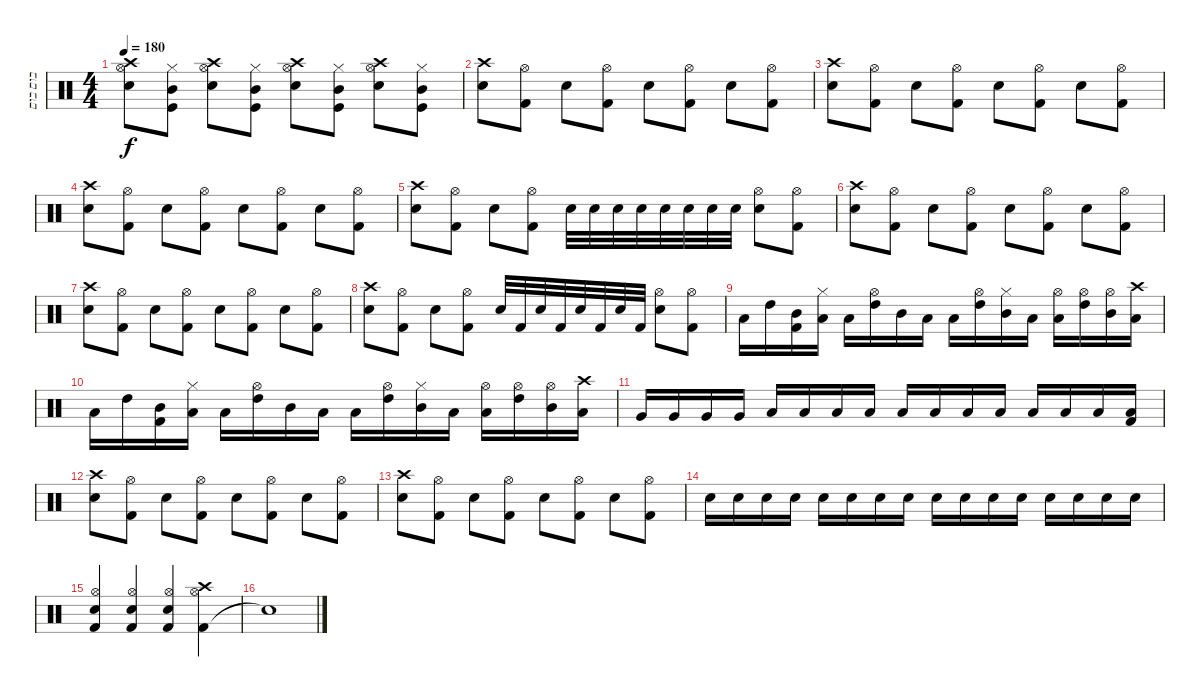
\track ("בום בום" "בום בום") {instrument percussion}
\staff {score}
\articulation defaults
\ts (4 4)
\tempo 180
\clef neutral
\ks c
("Snare (hit) 2" "Hi-Hat (open)" "Crash high (hit)").8{dy f} ("Kick (hit)" "Hi-Hat (closed)" "Mid Tom (hit)").8 ("Snare (hit) 2" "Hi-Hat (open)" "Crash high (hit)").8 ("Kick (hit)" "Hi-Hat (closed)" "Mid Tom (hit)").8 ("Snare (hit) 2" "Hi-Hat (open)" "Crash high (hit)").8 ("Kick (hit)" "Hi-Hat (closed)" "Mid Tom (hit)").8 ("Snare (hit) 2" "Hi-Hat (open)" "Crash high (hit)").8 ("Kick (hit)" "Hi-Hat (closed)" "Mid Tom (hit)").8 |
("Snare (hit) 2" "Crash high (hit)").8 ("Kick (hit) 2" "Hi-Hat (open)").8 "Snare (hit) 2".8 ("Kick (hit) 2" "Hi-Hat (open)").8 "Snare (hit) 2".8 ("Kick (hit) 2" "Hi-Hat (open)").8 "Snare (hit) 2".8 ("Kick (hit) 2" "Hi-Hat (open)").8 |
("Snare (hit) 2" "Crash high (hit)").8 ("Kick (hit) 2" "Hi-Hat (open)").8 "Snare (hit) 2".8 ("Kick (hit) 2" "Hi-Hat (open)").8 "Snare (hit) 2".8 ("Kick (hit) 2" "Hi-Hat (open)").8 "Snare (hit) 2".8 ("Kick (hit) 2" "Hi-Hat (open)").8 |
("Snare (hit) 2" "Crash high (hit)").8 ("Kick (hit) 2" "Hi-Hat (open)").8 "Snare (hit) 2".8 ("Kick (hit) 2" "Hi-Hat (open)").8 "Snare (hit) 2".8 ("Kick (hit) 2" "Hi-Hat (open)").8 "Snare (hit) 2".8 ("Kick (hit) 2" "Hi-Hat (open)").8 |
("Snare (hit) 2" "Crash high (hit)").8 ("Kick (hit) 2" "Hi-Hat (open)").8 "Snare (hit) 2".8 ("Kick (hit) 2" "Hi-Hat (open)").8 "Snare (hit) 2".32 "Snare (hit) 2".32 "Snare (hit) 2".32 "Snare (hit) 2".32 "Snare (hit) 2".32 "Snare (hit) 2".32 "Snare (hit) 2".32 "Snare (hit) 2".32 ("Snare (hit) 2" "Hi-Hat (open)").8 ("Kick (hit) 2" "Hi-Hat (open)").8 |
("Snare (hit) 2" "Crash high (hit)").8 ("Kick (hit) 2" "Hi-Hat (open)").8 "Snare (hit) 2".8 ("Kick (hit) 2" "Hi-Hat (open)").8 "Snare (hit) 2".8 ("Kick (hit) 2" "Hi-Hat (open)").8 "Snare (hit) 2".8 ("Kick (hit) 2" "Hi-Hat (open)").8 |
("Snare (hit) 2" "Crash high (hit)").8 ("Kick (hit) 2" "Hi-Hat (open)").8 "Snare (hit) 2".8 ("Kick (hit) 2" "Hi-Hat (open)").8 "Snare (hit) 2".8 ("Kick (hit) 2" "Hi-Hat (open)").8 "Snare (hit) 2".8 ("Kick (hit) 2" "Hi-Hat (open)").8 |
("Snare (hit) 2" "Crash high (hit)").8 ("Kick (hit) 2" "Hi-Hat (open)").8 "Snare (hit) 2".8 ("Kick (hit) 2" "Hi-Hat (open)").8 "Snare (hit) 2".32 "Kick (hit) 2".32 "Snare (hit) 2".32 "Kick (hit) 2".32 "Snare (hit) 2".32 "Kick (hit) 2".32 "Snare (hit) 2".32 "Kick (hit) 2".32 ("Snare (hit) 2" "Hi-Hat (open)").8 ("Kick (hit) 2" "Hi-Hat (open)").8 |
"Low Floor Tom (hit)".16 "High Tom (hit)".16 ("Mid Tom (hit)" "Kick (hit) 2").16 ("Low Tom (hit)" "Hi-Hat (closed)").16 "Low Floor Tom (hit)".16 ("High Tom (hit)" "Hi-Hat (open)").16 "Mid Tom (hit)".16 "Low Tom (hit)".16 "Low Floor Tom (hit)".16 ("High Tom (hit)" "Hi-Hat (open)").16 ("Mid Tom (hit)" "Hi-Hat (closed)").16 "Low Tom (hit)".16 ("Low Floor Tom (hit)" "Hi-Hat (open)").16 ("High Tom (hit)" "Hi-Hat (open)").16 ("Mid Tom (hit)" "Hi-Hat (open)").16 ("Low Tom (hit)" "Crash high (hit)").16 |
"Low Floor Tom (hit)".16 "High Tom (hit)".16 ("Mid Tom (hit)" "Kick (hit) 2").16 ("Low Tom (hit)" "Hi-Hat (closed)").16 "Low Floor Tom (hit)".16 ("High Tom (hit)" "Hi-Hat (open)").16 "Mid Tom (hit)".16 "Low Tom (hit)".16 "Low Floor Tom (hit)".16 ("High Tom (hit)" "Hi-Hat (open)").16 ("Mid Tom (hit)" "Hi-Hat (closed)").16 "Low Tom (hit)".16 ("Low Floor Tom (hit)" "Hi-Hat (open)").16 ("High Tom (hit)" "Hi-Hat (open)").16 ("Mid Tom (hit)" "Hi-Hat (open)").16 ("Low Tom (hit)" "Crash high (hit)").16 |
"Very Low Tom (hit)".16 "Very Low Tom (hit)".16 "Very Low Tom (hit)".16 "Very Low Tom (hit)".16 "Low Floor Tom (hit)".16 "Low Floor Tom (hit)".16 "Low Floor Tom (hit)".16 "Low Floor Tom (hit)".16 "Low Floor Tom (hit)".16 "Low Floor Tom (hit)".16 "Low Floor Tom (hit)".16 "Low Floor Tom (hit)".16 "Low Floor Tom (hit)".16 "Low Floor Tom (hit)".16 "Low Floor Tom (hit)".16 ("Low Floor Tom (hit)" "Kick (hit) 2").16 |
("Snare (hit) 2" "Crash high (hit)").8 ("Kick (hit) 2" "Hi-Hat (open)").8 "Snare (hit) 2".8 ("Kick (hit) 2" "Hi-Hat (open)").8 "Snare (hit) 2".8 ("Kick (hit) 2" "Hi-Hat (open)").8 "Snare (hit) 2".8 ("Kick (hit) 2" "Hi-Hat (open)").8 |
("Snare (hit) 2" "Crash high (hit)").8 ("Kick (hit) 2" "Hi-Hat (open)").8 "Snare (hit) 2".8 ("Kick (hit) 2" "Hi-Hat (open)").8 "Snare (hit) 2".8 ("Kick (hit) 2" "Hi-Hat (open)").8 "Snare (hit) 2".8 ("Kick (hit) 2" "Hi-Hat (open)").8 |
"Snare (hit) 2".16 "Snare (hit) 2".16 "Snare (hit) 2".16 "Snare (hit) 2".16 "Snare (hit) 2".16 "Snare (hit) 2".16 "Snare (hit) 2".16 "Snare (hit) 2".16 "Snare (hit) 2".16 "Snare (hit) 2".16 "Snare (hit) 2".16 "Snare (hit) 2".16 "Snare (hit) 2".16 "Snare (hit) 2".16 "Snare (hit) 2".16 "Snare (hit) 2".16 |
("Snare (hit) 2" "Hi-Hat (open)" "Kick (hit) 2").4 ("Snare (hit) 2" "Hi-Hat (open)" "Kick (hit) 2").4 ("Snare (hit) 2" "Hi-Hat (open)" "Kick (hit) 2").4 ("Kick (hit) 2" "Hi-Hat (open)" "Crash high (hit)").4 |
"Snare (hit)"{t}.1
